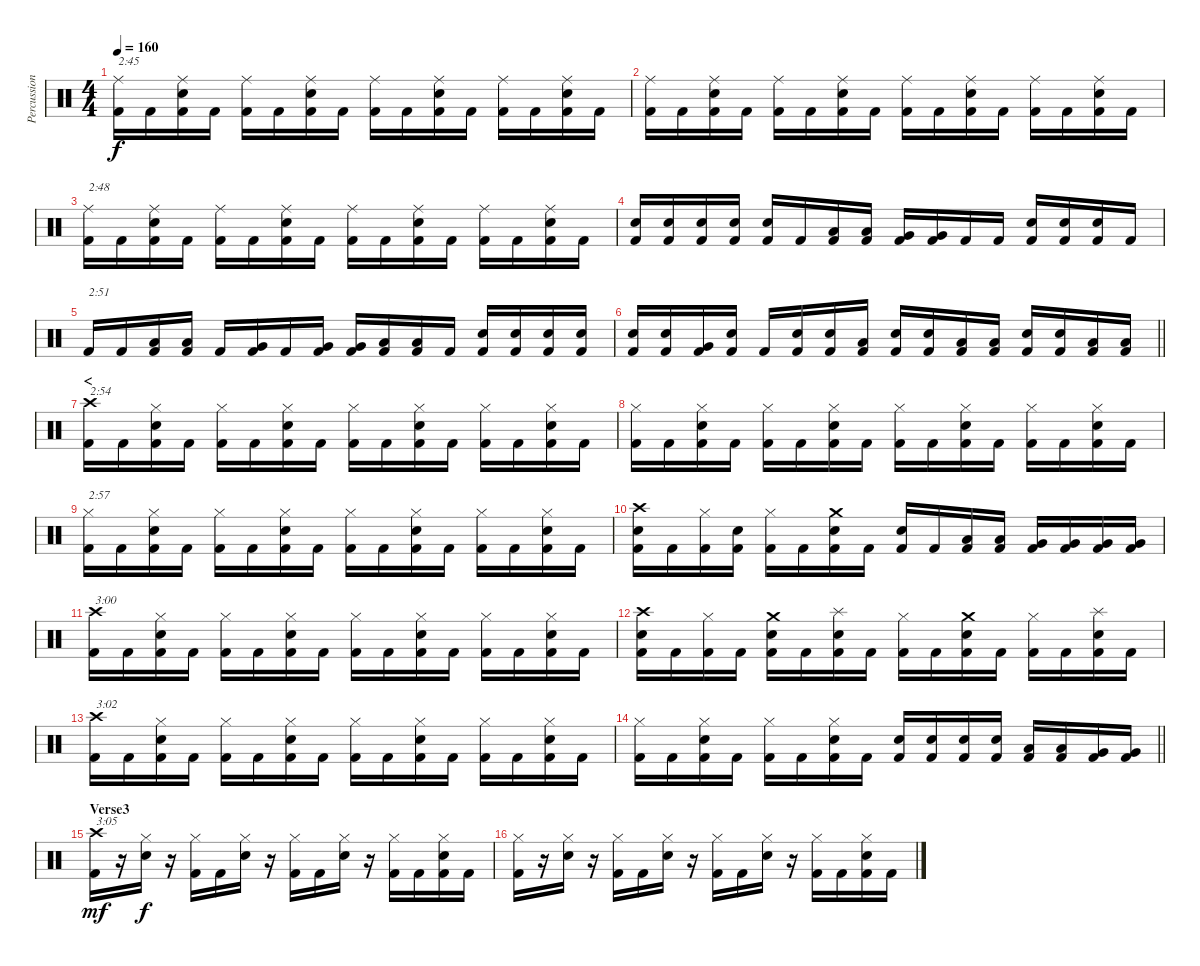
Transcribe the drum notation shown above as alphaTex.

\track ("Percussion" "Percussion") {instrument percussion}
\staff {score}
\articulation defaults
\ts (4 4)
\tempo 160
\clef neutral
\ks c
("Ride (middle)" "Kick (hit) 2").16{txt "2:45" dy f} "Kick (hit) 2".16 ("Ride (middle)" "Electric Snare (hit)" "Kick (hit) 2").16 "Kick (hit) 2".16 ("Ride (middle)" "Kick (hit) 2").16 "Kick (hit) 2".16 ("Ride (middle)" "Electric Snare (hit)" "Kick (hit) 2").16 "Kick (hit) 2".16 ("Ride (middle)" "Kick (hit) 2").16 "Kick (hit) 2".16 ("Ride (middle)" "Electric Snare (hit)" "Kick (hit) 2").16 "Kick (hit) 2".16 ("Ride (middle)" "Kick (hit) 2").16 "Kick (hit) 2".16 ("Ride (middle)" "Electric Snare (hit)" "Kick (hit) 2").16 "Kick (hit) 2".16 |
("Ride (middle)" "Kick (hit) 2").16 "Kick (hit) 2".16 ("Ride (middle)" "Electric Snare (hit)" "Kick (hit) 2").16 "Kick (hit) 2".16 ("Ride (middle)" "Kick (hit) 2").16 "Kick (hit) 2".16 ("Ride (middle)" "Electric Snare (hit)" "Kick (hit) 2").16 "Kick (hit) 2".16 ("Ride (middle)" "Kick (hit) 2").16 "Kick (hit) 2".16 ("Ride (middle)" "Electric Snare (hit)" "Kick (hit) 2").16 "Kick (hit) 2".16 ("Ride (middle)" "Kick (hit) 2").16 "Kick (hit) 2".16 ("Ride (middle)" "Electric Snare (hit)" "Kick (hit) 2").16 "Kick (hit) 2".16 |
("Ride (middle)" "Kick (hit) 2").16{txt "2:48"} "Kick (hit) 2".16 ("Ride (middle)" "Electric Snare (hit)" "Kick (hit) 2").16 "Kick (hit) 2".16 ("Ride (middle)" "Kick (hit) 2").16 "Kick (hit) 2".16 ("Ride (middle)" "Electric Snare (hit)" "Kick (hit) 2").16 "Kick (hit) 2".16 ("Ride (middle)" "Kick (hit) 2").16 "Kick (hit) 2".16 ("Ride (middle)" "Electric Snare (hit)" "Kick (hit) 2").16 "Kick (hit) 2".16 ("Ride (middle)" "Kick (hit) 2").16 "Kick (hit) 2".16 ("Ride (middle)" "Electric Snare (hit)" "Kick (hit) 2").16 "Kick (hit) 2".16 |
("Electric Snare (hit)" "Kick (hit) 2").16 ("Electric Snare (hit)" "Kick (hit) 2").16 ("Electric Snare (hit)" "Kick (hit) 2").16 ("Electric Snare (hit)" "Kick (hit) 2").16 ("Electric Snare (hit)" "Kick (hit) 2").16 "Kick (hit) 2".16 ("Low Tom (hit)" "Kick (hit) 2").16 ("Low Tom (hit)" "Kick (hit) 2").16 ("Very Low Tom (hit)" "Kick (hit) 2").16 ("Very Low Tom (hit)" "Kick (hit) 2").16 "Kick (hit) 2".16 "Kick (hit) 2".16 ("Electric Snare (hit)" "Kick (hit) 2").16 ("Electric Snare (hit)" "Kick (hit) 2").16 ("Electric Snare (hit)" "Kick (hit) 2").16 "Kick (hit) 2".16 |
"Kick (hit) 2".16{txt "2:51"} "Kick (hit) 2".16 ("Low Tom (hit)" "Kick (hit) 2").16 ("Low Tom (hit)" "Kick (hit) 2").16 "Kick (hit) 2".16 ("Very Low Tom (hit)" "Kick (hit) 2").16 "Kick (hit) 2".16 ("Very Low Tom (hit)" "Kick (hit) 2").16 ("Very Low Tom (hit)" "Kick (hit) 2").16 ("Low Floor Tom (hit)" "Kick (hit) 2").16 ("Low Floor Tom (hit)" "Kick (hit) 2").16 "Kick (hit) 2".16 ("Electric Snare (hit)" "Kick (hit) 2").16 ("Electric Snare (hit)" "Kick (hit) 2").16 ("Electric Snare (hit)" "Kick (hit) 2").16 ("Electric Snare (hit)" "Kick (hit) 2").16 |
\barLineRight lightlight
("Electric Snare (hit)" "Kick (hit) 2").16 ("Electric Snare (hit)" "Kick (hit) 2").16 ("Very Low Tom (hit)" "Kick (hit) 2").16 ("Electric Snare (hit)" "Kick (hit) 2").16 "Kick (hit) 2".16 ("Electric Snare (hit)" "Kick (hit) 2").16 ("Electric Snare (hit)" "Kick (hit) 2").16 ("Low Tom (hit)" "Kick (hit) 2").16 ("Electric Snare (hit)" "Kick (hit) 2").16 ("Electric Snare (hit)" "Kick (hit) 2").16 ("Low Tom (hit)" "Kick (hit) 2").16 ("Low Tom (hit)" "Kick (hit) 2").16 ("Electric Snare (hit)" "Kick (hit) 2").16 ("Electric Snare (hit)" "Kick (hit) 2").16 ("Low Tom (hit)" "Kick (hit) 2").16 ("Low Tom (hit)" "Kick (hit) 2").16 |
\section ("" "<")
("Crash high (hit)" "Kick (hit) 2").16{txt "2:54"} "Kick (hit) 2".16 ("Hi-Hat (closed)" "Electric Snare (hit)" "Kick (hit) 2").16 "Kick (hit) 2".16 ("Hi-Hat (closed)" "Kick (hit) 2").16 "Kick (hit) 2".16 ("Hi-Hat (closed)" "Electric Snare (hit)" "Kick (hit) 2").16 "Kick (hit) 2".16 ("Hi-Hat (closed)" "Kick (hit) 2").16 "Kick (hit) 2".16 ("Hi-Hat (closed)" "Electric Snare (hit)" "Kick (hit) 2").16 "Kick (hit) 2".16 ("Hi-Hat (closed)" "Kick (hit) 2").16 "Kick (hit) 2".16 ("Hi-Hat (closed)" "Electric Snare (hit)" "Kick (hit) 2").16 "Kick (hit) 2".16 |
("Hi-Hat (closed)" "Kick (hit) 2").16 "Kick (hit) 2".16 ("Hi-Hat (closed)" "Electric Snare (hit)" "Kick (hit) 2").16 "Kick (hit) 2".16 ("Hi-Hat (closed)" "Kick (hit) 2").16 "Kick (hit) 2".16 ("Hi-Hat (closed)" "Electric Snare (hit)" "Kick (hit) 2").16 "Kick (hit) 2".16 ("Hi-Hat (closed)" "Kick (hit) 2").16 "Kick (hit) 2".16 ("Hi-Hat (closed)" "Electric Snare (hit)" "Kick (hit) 2").16 "Kick (hit) 2".16 ("Hi-Hat (closed)" "Kick (hit) 2").16 "Kick (hit) 2".16 ("Hi-Hat (closed)" "Electric Snare (hit)" "Kick (hit) 2").16 "Kick (hit) 2".16 |
("Hi-Hat (closed)" "Kick (hit) 2").16{txt "2:57"} "Kick (hit) 2".16 ("Hi-Hat (closed)" "Electric Snare (hit)" "Kick (hit) 2").16 "Kick (hit) 2".16 ("Hi-Hat (closed)" "Kick (hit) 2").16 "Kick (hit) 2".16 ("Hi-Hat (closed)" "Electric Snare (hit)" "Kick (hit) 2").16 "Kick (hit) 2".16 ("Hi-Hat (closed)" "Kick (hit) 2").16 "Kick (hit) 2".16 ("Hi-Hat (closed)" "Electric Snare (hit)" "Kick (hit) 2").16 "Kick (hit) 2".16 ("Hi-Hat (closed)" "Kick (hit) 2").16 "Kick (hit) 2".16 ("Hi-Hat (closed)" "Electric Snare (hit)" "Kick (hit) 2").16 "Kick (hit) 2".16 |
("Crash high (hit)" "Electric Snare (hit)" "Kick (hit) 2").16 "Kick (hit) 2".16 ("Hi-Hat (closed)" "Kick (hit) 2").16 ("Electric Snare (hit)" "Kick (hit) 2").16 ("Hi-Hat (closed)" "Kick (hit) 2").16 "Kick (hit) 2".16 ("Crash medium (hit)" "Electric Snare (hit)" "Kick (hit) 2").16 "Kick (hit) 2".16 ("Electric Snare (hit)" "Kick (hit) 2").16 "Kick (hit) 2".16 ("Low Tom (hit)" "Kick (hit) 2").16 ("Low Tom (hit)" "Kick (hit) 2").16 ("Very Low Tom (hit)" "Kick (hit) 2").16 ("Very Low Tom (hit)" "Kick (hit) 2").16 ("Very Low Tom (hit)" "Kick (hit) 2").16 ("Very Low Tom (hit)" "Kick (hit) 2").16 |
("Crash high (hit)" "Kick (hit) 2").16{txt "3:00"} "Kick (hit) 2".16 ("Hi-Hat (closed)" "Electric Snare (hit)" "Kick (hit) 2").16 "Kick (hit) 2".16 ("Hi-Hat (closed)" "Kick (hit) 2").16 "Kick (hit) 2".16 ("Hi-Hat (closed)" "Electric Snare (hit)" "Kick (hit) 2").16 "Kick (hit) 2".16 ("Hi-Hat (closed)" "Kick (hit) 2").16 "Kick (hit) 2".16 ("Hi-Hat (closed)" "Electric Snare (hit)" "Kick (hit) 2").16 "Kick (hit) 2".16 ("Hi-Hat (closed)" "Kick (hit) 2").16 "Kick (hit) 2".16 ("Hi-Hat (closed)" "Electric Snare (hit)" "Kick (hit) 2").16 "Kick (hit) 2".16 |
("Crash high (hit)" "Electric Snare (hit)" "Kick (hit) 2").16 "Kick (hit) 2".16 ("Hi-Hat (closed)" "Kick (hit) 2").16 "Kick (hit) 2".16 ("Crash medium (hit)" "Electric Snare (hit)" "Kick (hit) 2").16 "Kick (hit) 2".16 ("Splash (hit)" "Electric Snare (hit)" "Kick (hit) 2").16 "Kick (hit) 2".16 ("Hi-Hat (closed)" "Kick (hit) 2").16 "Kick (hit) 2".16 ("Crash medium (hit)" "Electric Snare (hit)" "Kick (hit) 2").16 "Kick (hit) 2".16 ("Hi-Hat (closed)" "Kick (hit) 2").16 "Kick (hit) 2".16 ("Splash (hit)" "Electric Snare (hit)" "Kick (hit) 2").16 "Kick (hit) 2".16 |
("Crash high (hit)" "Kick (hit) 2").16{txt "3:02"} "Kick (hit) 2".16 ("Hi-Hat (closed)" "Electric Snare (hit)" "Kick (hit) 2").16 "Kick (hit) 2".16 ("Hi-Hat (closed)" "Kick (hit) 2").16 "Kick (hit) 2".16 ("Hi-Hat (closed)" "Electric Snare (hit)" "Kick (hit) 2").16 "Kick (hit) 2".16 ("Hi-Hat (closed)" "Kick (hit) 2").16 "Kick (hit) 2".16 ("Hi-Hat (closed)" "Electric Snare (hit)" "Kick (hit) 2").16 "Kick (hit) 2".16 ("Hi-Hat (closed)" "Kick (hit) 2").16 "Kick (hit) 2".16 ("Hi-Hat (closed)" "Electric Snare (hit)" "Kick (hit) 2").16 "Kick (hit) 2".16 |
\barLineRight lightlight
("Hi-Hat (closed)" "Kick (hit) 2").16 "Kick (hit) 2".16 ("Hi-Hat (closed)" "Electric Snare (hit)" "Kick (hit) 2").16 "Kick (hit) 2".16 ("Hi-Hat (closed)" "Kick (hit) 2").16 "Kick (hit) 2".16 ("Hi-Hat (closed)" "Electric Snare (hit)" "Kick (hit) 2").16 "Kick (hit) 2".16 ("Electric Snare (hit)" "Kick (hit) 2").16 ("Electric Snare (hit)" "Kick (hit) 2").16 ("Electric Snare (hit)" "Kick (hit) 2").16 ("Electric Snare (hit)" "Kick (hit) 2").16 ("Low Tom (hit)" "Kick (hit) 2").16 ("Low Tom (hit)" "Kick (hit) 2").16 ("Very Low Tom (hit)" "Kick (hit) 2").16 ("Very Low Tom (hit)" "Kick (hit) 2").16 |
\section ("" "Verse3")
("Crash high (hit)" "Kick (hit) 2").16{txt "3:05" dy mf} r.16 ("Hi-Hat (closed)" "Electric Snare (hit)").16{dy f} r.16 ("Hi-Hat (closed)" "Kick (hit) 2").16 "Kick (hit) 2".16 ("Hi-Hat (closed)" "Electric Snare (hit)").16 r.16 ("Hi-Hat (closed)" "Kick (hit) 2").16 "Kick (hit) 2".16 ("Hi-Hat (closed)" "Electric Snare (hit)").16 r.16 ("Hi-Hat (closed)" "Kick (hit) 2").16 "Kick (hit) 2".16 ("Hi-Hat (closed)" "Electric Snare (hit)" "Kick (hit) 2").16 "Kick (hit) 2".16 |
("Hi-Hat (closed)" "Kick (hit) 2").16 r.16 ("Hi-Hat (closed)" "Electric Snare (hit)").16 r.16 ("Hi-Hat (closed)" "Kick (hit) 2").16 "Kick (hit) 2".16 ("Hi-Hat (closed)" "Electric Snare (hit)").16 r.16 ("Hi-Hat (closed)" "Kick (hit) 2").16 "Kick (hit) 2".16 ("Hi-Hat (closed)" "Electric Snare (hit)").16 r.16 ("Hi-Hat (closed)" "Kick (hit) 2").16 "Kick (hit) 2".16 ("Hi-Hat (closed)" "Electric Snare (hit)" "Kick (hit) 2").16 "Kick (hit) 2".16
